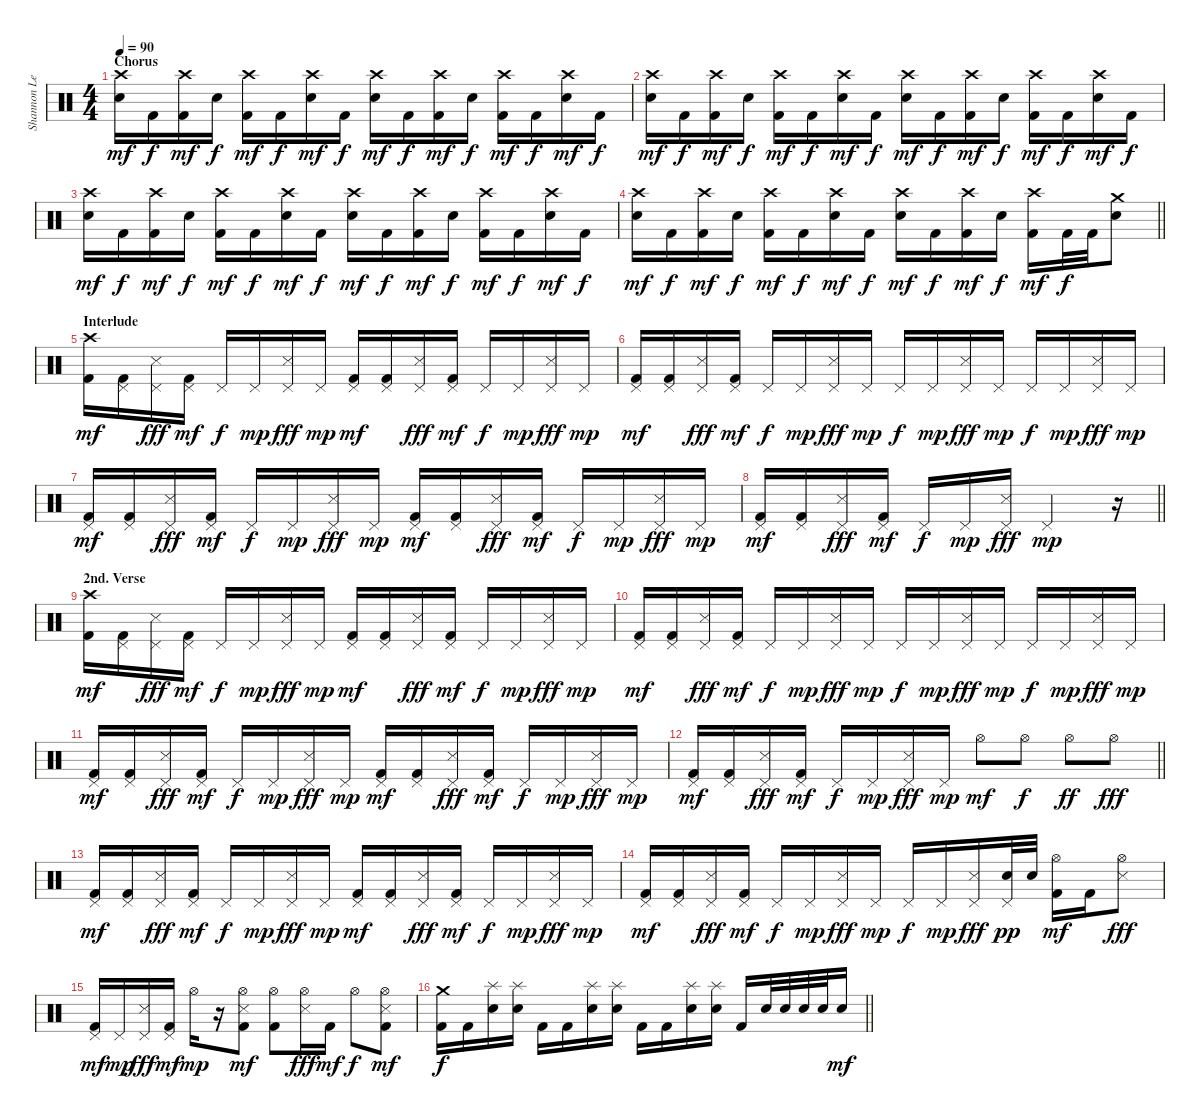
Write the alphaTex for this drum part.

\track ("Shannon Leto - Drums" "Shannon Le") {instrument percussion}
\staff {score}
\articulation defaults
\ts (4 4)
\section ("" "Chorus")
\tempo 90
\clef neutral
\ks c
("Crash high (hit)" "Electric Snare (hit)").16{dy mf} "Kick (hit) 2".16{dy f} ("Crash high (hit)" "Kick (hit) 2").16{dy mf} "Electric Snare (hit)".16{dy f} ("Crash high (hit)" "Kick (hit) 2").16{dy mf} "Kick (hit) 2".16{dy f} ("Crash high (hit)" "Electric Snare (hit)").16{dy mf} "Kick (hit) 2".16{dy f} ("Crash high (hit)" "Electric Snare (hit)").16{dy mf} "Kick (hit) 2".16{dy f} ("Crash high (hit)" "Kick (hit) 2").16{dy mf} "Electric Snare (hit)".16{dy f} ("Crash high (hit)" "Kick (hit) 2").16{dy mf} "Kick (hit) 2".16{dy f} ("Crash high (hit)" "Electric Snare (hit)").16{dy mf} "Kick (hit) 2".16{dy f} |
("Crash high (hit)" "Electric Snare (hit)").16{dy mf} "Kick (hit) 2".16{dy f} ("Crash high (hit)" "Kick (hit) 2").16{dy mf} "Electric Snare (hit)".16{dy f} ("Crash high (hit)" "Kick (hit) 2").16{dy mf} "Kick (hit) 2".16{dy f} ("Crash high (hit)" "Electric Snare (hit)").16{dy mf} "Kick (hit) 2".16{dy f} ("Crash high (hit)" "Electric Snare (hit)").16{dy mf} "Kick (hit) 2".16{dy f} ("Crash high (hit)" "Kick (hit) 2").16{dy mf} "Electric Snare (hit)".16{dy f} ("Crash high (hit)" "Kick (hit) 2").16{dy mf} "Kick (hit) 2".16{dy f} ("Crash high (hit)" "Electric Snare (hit)").16{dy mf} "Kick (hit) 2".16{dy f} |
("Crash high (hit)" "Electric Snare (hit)").16{dy mf} "Kick (hit) 2".16{dy f} ("Crash high (hit)" "Kick (hit) 2").16{dy mf} "Electric Snare (hit)".16{dy f} ("Crash high (hit)" "Kick (hit) 2").16{dy mf} "Kick (hit) 2".16{dy f} ("Crash high (hit)" "Electric Snare (hit)").16{dy mf} "Kick (hit) 2".16{dy f} ("Crash high (hit)" "Electric Snare (hit)").16{dy mf} "Kick (hit) 2".16{dy f} ("Crash high (hit)" "Kick (hit) 2").16{dy mf} "Electric Snare (hit)".16{dy f} ("Crash high (hit)" "Kick (hit) 2").16{dy mf} "Kick (hit) 2".16{dy f} ("Crash high (hit)" "Electric Snare (hit)").16{dy mf} "Kick (hit) 2".16{dy f} |
\barLineRight lightlight
("Crash high (hit)" "Electric Snare (hit)").16{dy mf} "Kick (hit) 2".16{dy f} ("Crash high (hit)" "Kick (hit) 2").16{dy mf} "Electric Snare (hit)".16{dy f} ("Crash high (hit)" "Kick (hit) 2").16{dy mf} "Kick (hit) 2".16{dy f} ("Crash high (hit)" "Electric Snare (hit)").16{dy mf} "Kick (hit) 2".16{dy f} ("Crash high (hit)" "Electric Snare (hit)").16{dy mf} "Kick (hit) 2".16{dy f} ("Crash high (hit)" "Kick (hit) 2").16{dy mf} "Electric Snare (hit)".16{dy f} ("Crash high (hit)" "Kick (hit) 2").16{dy mf} "Kick (hit) 2".32{dy f} "Kick (hit) 2".32 ("Crash medium (hit)" "Electric Snare (hit)").8 |
\section ("" "Interlude")
("Crash high (hit)" "Kick (hit) 2").16{dy mf} ("Pedal Hi-Hat (hit)" "Kick (hit) 2").16 ("Pedal Hi-Hat (hit)" "Snare (side stick) 3").16{dy fff} ("Pedal Hi-Hat (hit)" "Kick (hit) 2").16{dy mf} "Pedal Hi-Hat (hit)".16{dy f} "Pedal Hi-Hat (hit)".16{dy mp} ("Pedal Hi-Hat (hit)" "Snare (side stick) 3").16{dy fff} "Pedal Hi-Hat (hit)".16{dy mp} ("Pedal Hi-Hat (hit)" "Kick (hit) 2").16{dy mf} ("Pedal Hi-Hat (hit)" "Kick (hit) 2").16 ("Pedal Hi-Hat (hit)" "Snare (side stick) 3").16{dy fff} ("Pedal Hi-Hat (hit)" "Kick (hit) 2").16{dy mf} "Pedal Hi-Hat (hit)".16{dy f} "Pedal Hi-Hat (hit)".16{dy mp} ("Pedal Hi-Hat (hit)" "Snare (side stick) 3").16{dy fff} "Pedal Hi-Hat (hit)".16{dy mp} |
("Pedal Hi-Hat (hit)" "Kick (hit) 2").16{dy mf} ("Pedal Hi-Hat (hit)" "Kick (hit) 2").16 ("Pedal Hi-Hat (hit)" "Snare (side stick) 3").16{dy fff} ("Pedal Hi-Hat (hit)" "Kick (hit) 2").16{dy mf} "Pedal Hi-Hat (hit)".16{dy f} "Pedal Hi-Hat (hit)".16{dy mp} ("Pedal Hi-Hat (hit)" "Snare (side stick) 3").16{dy fff} "Pedal Hi-Hat (hit)".16{dy mp} "Pedal Hi-Hat (hit)".16{dy f} "Pedal Hi-Hat (hit)".16{dy mp} ("Pedal Hi-Hat (hit)" "Snare (side stick) 3").16{dy fff} "Pedal Hi-Hat (hit)".16{dy mp} "Pedal Hi-Hat (hit)".16{dy f} "Pedal Hi-Hat (hit)".16{dy mp} ("Pedal Hi-Hat (hit)" "Snare (side stick) 3").16{dy fff} "Pedal Hi-Hat (hit)".16{dy mp} |
("Pedal Hi-Hat (hit)" "Kick (hit) 2").16{dy mf} ("Pedal Hi-Hat (hit)" "Kick (hit) 2").16 ("Pedal Hi-Hat (hit)" "Snare (side stick) 3").16{dy fff} ("Pedal Hi-Hat (hit)" "Kick (hit) 2").16{dy mf} "Pedal Hi-Hat (hit)".16{dy f} "Pedal Hi-Hat (hit)".16{dy mp} ("Pedal Hi-Hat (hit)" "Snare (side stick) 3").16{dy fff} "Pedal Hi-Hat (hit)".16{dy mp} ("Pedal Hi-Hat (hit)" "Kick (hit) 2").16{dy mf} ("Pedal Hi-Hat (hit)" "Kick (hit) 2").16 ("Pedal Hi-Hat (hit)" "Snare (side stick) 3").16{dy fff} ("Pedal Hi-Hat (hit)" "Kick (hit) 2").16{dy mf} "Pedal Hi-Hat (hit)".16{dy f} "Pedal Hi-Hat (hit)".16{dy mp} ("Pedal Hi-Hat (hit)" "Snare (side stick) 3").16{dy fff} "Pedal Hi-Hat (hit)".16{dy mp} |
\barLineRight lightlight
("Pedal Hi-Hat (hit)" "Kick (hit) 2").16{dy mf} ("Pedal Hi-Hat (hit)" "Kick (hit) 2").16 ("Pedal Hi-Hat (hit)" "Snare (side stick) 3").16{dy fff} ("Pedal Hi-Hat (hit)" "Kick (hit) 2").16{dy mf} "Pedal Hi-Hat (hit)".16{dy f} "Pedal Hi-Hat (hit)".16{dy mp} ("Pedal Hi-Hat (hit)" "Snare (side stick) 3").16{dy fff} "Pedal Hi-Hat (hit)".2{dy mp} r.16 |
\section ("" "2nd. Verse")
("Crash high (hit)" "Kick (hit) 2").16{dy mf} ("Pedal Hi-Hat (hit)" "Kick (hit) 2").16 ("Pedal Hi-Hat (hit)" "Snare (side stick) 3").16{dy fff} ("Pedal Hi-Hat (hit)" "Kick (hit) 2").16{dy mf} "Pedal Hi-Hat (hit)".16{dy f} "Pedal Hi-Hat (hit)".16{dy mp} ("Pedal Hi-Hat (hit)" "Snare (side stick) 3").16{dy fff} "Pedal Hi-Hat (hit)".16{dy mp} ("Pedal Hi-Hat (hit)" "Kick (hit) 2").16{dy mf} ("Pedal Hi-Hat (hit)" "Kick (hit) 2").16 ("Pedal Hi-Hat (hit)" "Snare (side stick) 3").16{dy fff} ("Pedal Hi-Hat (hit)" "Kick (hit) 2").16{dy mf} "Pedal Hi-Hat (hit)".16{dy f} "Pedal Hi-Hat (hit)".16{dy mp} ("Pedal Hi-Hat (hit)" "Snare (side stick) 3").16{dy fff} "Pedal Hi-Hat (hit)".16{dy mp} |
("Pedal Hi-Hat (hit)" "Kick (hit) 2").16{dy mf} ("Pedal Hi-Hat (hit)" "Kick (hit) 2").16 ("Pedal Hi-Hat (hit)" "Snare (side stick) 3").16{dy fff} ("Pedal Hi-Hat (hit)" "Kick (hit) 2").16{dy mf} "Pedal Hi-Hat (hit)".16{dy f} "Pedal Hi-Hat (hit)".16{dy mp} ("Pedal Hi-Hat (hit)" "Snare (side stick) 3").16{dy fff} "Pedal Hi-Hat (hit)".16{dy mp} "Pedal Hi-Hat (hit)".16{dy f} "Pedal Hi-Hat (hit)".16{dy mp} ("Pedal Hi-Hat (hit)" "Snare (side stick) 3").16{dy fff} "Pedal Hi-Hat (hit)".16{dy mp} "Pedal Hi-Hat (hit)".16{dy f} "Pedal Hi-Hat (hit)".16{dy mp} ("Pedal Hi-Hat (hit)" "Snare (side stick) 3").16{dy fff} "Pedal Hi-Hat (hit)".16{dy mp} |
("Pedal Hi-Hat (hit)" "Kick (hit) 2").16{dy mf} ("Pedal Hi-Hat (hit)" "Kick (hit) 2").16 ("Pedal Hi-Hat (hit)" "Snare (side stick) 3").16{dy fff} ("Pedal Hi-Hat (hit)" "Kick (hit) 2").16{dy mf} "Pedal Hi-Hat (hit)".16{dy f} "Pedal Hi-Hat (hit)".16{dy mp} ("Pedal Hi-Hat (hit)" "Snare (side stick) 3").16{dy fff} "Pedal Hi-Hat (hit)".16{dy mp} ("Pedal Hi-Hat (hit)" "Kick (hit) 2").16{dy mf} ("Pedal Hi-Hat (hit)" "Kick (hit) 2").16 ("Pedal Hi-Hat (hit)" "Snare (side stick) 3").16{dy fff} ("Pedal Hi-Hat (hit)" "Kick (hit) 2").16{dy mf} "Pedal Hi-Hat (hit)".16{dy f} "Pedal Hi-Hat (hit)".16{dy mp} ("Pedal Hi-Hat (hit)" "Snare (side stick) 3").16{dy fff} "Pedal Hi-Hat (hit)".16{dy mp} |
\barLineRight lightlight
("Pedal Hi-Hat (hit)" "Kick (hit) 2").16{dy mf} ("Pedal Hi-Hat (hit)" "Kick (hit) 2").16 ("Pedal Hi-Hat (hit)" "Snare (side stick) 3").16{dy fff} ("Pedal Hi-Hat (hit)" "Kick (hit) 2").16{dy mf} "Pedal Hi-Hat (hit)".16{dy f} "Pedal Hi-Hat (hit)".16{dy mp} ("Pedal Hi-Hat (hit)" "Snare (side stick) 3").16{dy fff} "Pedal Hi-Hat (hit)".16{dy mp} "Hi-Hat (open)".8{dy mf} "Hi-Hat (open)".8{dy f} "Hi-Hat (open)".8{dy ff} "Hi-Hat (open)".8{dy fff} |
\section ("" "")
("Pedal Hi-Hat (hit)" "Kick (hit) 2").16{dy mf} ("Pedal Hi-Hat (hit)" "Kick (hit) 2").16 ("Pedal Hi-Hat (hit)" "Snare (side stick) 3").16{dy fff} ("Pedal Hi-Hat (hit)" "Kick (hit) 2").16{dy mf} "Pedal Hi-Hat (hit)".16{dy f} "Pedal Hi-Hat (hit)".16{dy mp} ("Pedal Hi-Hat (hit)" "Snare (side stick) 3").16{dy fff} "Pedal Hi-Hat (hit)".16{dy mp} ("Pedal Hi-Hat (hit)" "Kick (hit) 2").16{dy mf} ("Pedal Hi-Hat (hit)" "Kick (hit) 2").16 ("Pedal Hi-Hat (hit)" "Snare (side stick) 3").16{dy fff} ("Pedal Hi-Hat (hit)" "Kick (hit) 2").16{dy mf} "Pedal Hi-Hat (hit)".16{dy f} "Pedal Hi-Hat (hit)".16{dy mp} ("Pedal Hi-Hat (hit)" "Snare (side stick) 3").16{dy fff} "Pedal Hi-Hat (hit)".16{dy mp} |
("Pedal Hi-Hat (hit)" "Kick (hit) 2").16{dy mf} ("Pedal Hi-Hat (hit)" "Kick (hit) 2").16 ("Pedal Hi-Hat (hit)" "Snare (side stick) 3").16{dy fff} ("Pedal Hi-Hat (hit)" "Kick (hit) 2").16{dy mf} "Pedal Hi-Hat (hit)".16{dy f} "Pedal Hi-Hat (hit)".16{dy mp} ("Pedal Hi-Hat (hit)" "Snare (side stick) 3").16{dy fff} "Pedal Hi-Hat (hit)".16{dy mp} "Pedal Hi-Hat (hit)".16{dy f} "Pedal Hi-Hat (hit)".16{dy mp} ("Pedal Hi-Hat (hit)" "Snare (side stick) 3").16{dy fff} ("Pedal Hi-Hat (hit)" "Electric Snare (hit)").32{dy pp} "Electric Snare (hit)".32 ("Hi-Hat (open)" "Kick (hit) 2").16{dy mf} "Kick (hit) 2".16 ("Hi-Hat (open)" "Snare (side stick) 3").8{dy fff} |
("Pedal Hi-Hat (hit)" "Kick (hit) 2").16{dy mf} "Pedal Hi-Hat (hit)".16{dy mp} ("Pedal Hi-Hat (hit)" "Snare (side stick) 3").16{dy fff} ("Pedal Hi-Hat (hit)" "Kick (hit) 2").16{dy mf} "Hi-Hat (open)".16{dy mp} r.16 ("Hi-Hat (open)" "Snare (side stick) 3" "Kick (hit) 2").8{dy mf} ("Hi-Hat (open)" "Kick (hit) 2").8 ("Hi-Hat (open)" "Snare (side stick) 3").16{dy fff} "Kick (hit) 2".16{dy mf} "Hi-Hat (open)".8{dy f} ("Hi-Hat (open)" "Snare (side stick) 3" "Kick (hit) 2").8{dy mf} |
\barLineRight lightlight
("Crash medium (hit)" "Kick (hit) 2").16{dy f} "Kick (hit) 2".16 ("Splash (hit)" "Electric Snare (hit)").16 ("Splash (hit)" "Electric Snare (hit)").16 "Kick (hit) 2".16 "Kick (hit) 2".16 ("Splash (hit)" "Electric Snare (hit)").16 ("Splash (hit)" "Electric Snare (hit)").16 "Kick (hit) 2".16 "Kick (hit) 2".16 ("Splash (hit)" "Electric Snare (hit)").16 ("Splash (hit)" "Electric Snare (hit)").16 "Kick (hit) 2".16 "Electric Snare (hit)".32 "Electric Snare (hit)".32 "Electric Snare (hit)".32 "Electric Snare (hit)".32 "Electric Snare (hit)".16{dy mf}
